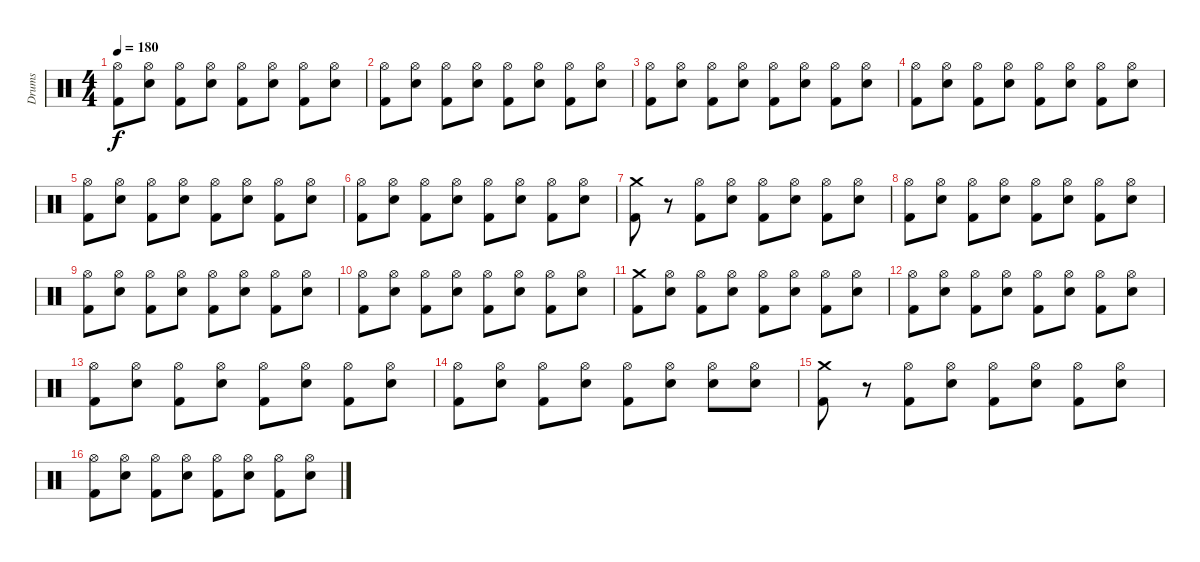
\track ("Drums" "Drums") {instrument percussion}
\staff {score}
\articulation defaults
\ts (4 4)
\tempo 180
\clef neutral
\ks c
("Hi-Hat (open)" "Kick (hit) 2").8{dy f} ("Electric Snare (hit)" "Hi-Hat (open)").8 ("Kick (hit) 2" "Hi-Hat (open)").8 ("Electric Snare (hit)" "Hi-Hat (open)").8 ("Kick (hit) 2" "Hi-Hat (open)").8 ("Electric Snare (hit)" "Hi-Hat (open)").8 ("Kick (hit) 2" "Hi-Hat (open)").8 ("Electric Snare (hit)" "Hi-Hat (open)").8 |
("Hi-Hat (open)" "Kick (hit) 2").8 ("Electric Snare (hit)" "Hi-Hat (open)").8 ("Kick (hit) 2" "Hi-Hat (open)").8 ("Electric Snare (hit)" "Hi-Hat (open)").8 ("Kick (hit) 2" "Hi-Hat (open)").8 ("Electric Snare (hit)" "Hi-Hat (open)").8 ("Kick (hit) 2" "Hi-Hat (open)").8 ("Electric Snare (hit)" "Hi-Hat (open)").8 |
("Hi-Hat (open)" "Kick (hit) 2").8 ("Electric Snare (hit)" "Hi-Hat (open)").8 ("Kick (hit) 2" "Hi-Hat (open)").8 ("Electric Snare (hit)" "Hi-Hat (open)").8 ("Kick (hit) 2" "Hi-Hat (open)").8 ("Electric Snare (hit)" "Hi-Hat (open)").8 ("Kick (hit) 2" "Hi-Hat (open)").8 ("Electric Snare (hit)" "Hi-Hat (open)").8 |
("Hi-Hat (open)" "Kick (hit) 2").8 ("Electric Snare (hit)" "Hi-Hat (open)").8 ("Kick (hit) 2" "Hi-Hat (open)").8 ("Electric Snare (hit)" "Hi-Hat (open)").8 ("Kick (hit) 2" "Hi-Hat (open)").8 ("Electric Snare (hit)" "Hi-Hat (open)").8 ("Kick (hit) 2" "Hi-Hat (open)").8 ("Electric Snare (hit)" "Hi-Hat (open)").8 |
("Hi-Hat (open)" "Kick (hit) 2").8 ("Electric Snare (hit)" "Hi-Hat (open)").8 ("Kick (hit) 2" "Hi-Hat (open)").8 ("Electric Snare (hit)" "Hi-Hat (open)").8 ("Kick (hit) 2" "Hi-Hat (open)").8 ("Electric Snare (hit)" "Hi-Hat (open)").8 ("Kick (hit) 2" "Hi-Hat (open)").8 ("Electric Snare (hit)" "Hi-Hat (open)").8 |
("Hi-Hat (open)" "Kick (hit) 2").8 ("Electric Snare (hit)" "Hi-Hat (open)").8 ("Kick (hit) 2" "Hi-Hat (open)").8 ("Electric Snare (hit)" "Hi-Hat (open)").8 ("Kick (hit) 2" "Hi-Hat (open)").8 ("Electric Snare (hit)" "Hi-Hat (open)").8 ("Kick (hit) 2" "Hi-Hat (open)").8 ("Electric Snare (hit)" "Hi-Hat (open)").8 |
("Crash medium (hit)" "Kick (hit) 2").8 r.8 ("Kick (hit) 2" "Hi-Hat (open)").8 ("Electric Snare (hit)" "Hi-Hat (open)").8 ("Kick (hit) 2" "Hi-Hat (open)").8 ("Electric Snare (hit)" "Hi-Hat (open)").8 ("Kick (hit) 2" "Hi-Hat (open)").8 ("Electric Snare (hit)" "Hi-Hat (open)").8 |
("Hi-Hat (open)" "Kick (hit) 2").8 ("Electric Snare (hit)" "Hi-Hat (open)").8 ("Kick (hit) 2" "Hi-Hat (open)").8 ("Electric Snare (hit)" "Hi-Hat (open)").8 ("Kick (hit) 2" "Hi-Hat (open)").8 ("Electric Snare (hit)" "Hi-Hat (open)").8 ("Kick (hit) 2" "Hi-Hat (open)").8 ("Electric Snare (hit)" "Hi-Hat (open)").8 |
("Hi-Hat (open)" "Kick (hit) 2").8 ("Electric Snare (hit)" "Hi-Hat (open)").8 ("Kick (hit) 2" "Hi-Hat (open)").8 ("Electric Snare (hit)" "Hi-Hat (open)").8 ("Kick (hit) 2" "Hi-Hat (open)").8 ("Electric Snare (hit)" "Hi-Hat (open)").8 ("Kick (hit) 2" "Hi-Hat (open)").8 ("Electric Snare (hit)" "Hi-Hat (open)").8 |
("Hi-Hat (open)" "Kick (hit) 2").8 ("Electric Snare (hit)" "Hi-Hat (open)").8 ("Kick (hit) 2" "Hi-Hat (open)").8 ("Electric Snare (hit)" "Hi-Hat (open)").8 ("Kick (hit) 2" "Hi-Hat (open)").8 ("Electric Snare (hit)" "Hi-Hat (open)").8 ("Kick (hit) 2" "Hi-Hat (open)").8 ("Electric Snare (hit)" "Hi-Hat (open)").8 |
("Crash medium (hit)" "Kick (hit) 2").8 ("Electric Snare (hit)" "Hi-Hat (open)").8 ("Kick (hit) 2" "Hi-Hat (open)").8 ("Electric Snare (hit)" "Hi-Hat (open)").8 ("Kick (hit) 2" "Hi-Hat (open)").8 ("Electric Snare (hit)" "Hi-Hat (open)").8 ("Kick (hit) 2" "Hi-Hat (open)").8 ("Electric Snare (hit)" "Hi-Hat (open)").8 |
("Hi-Hat (open)" "Kick (hit) 2").8 ("Electric Snare (hit)" "Hi-Hat (open)").8 ("Kick (hit) 2" "Hi-Hat (open)").8 ("Electric Snare (hit)" "Hi-Hat (open)").8 ("Kick (hit) 2" "Hi-Hat (open)").8 ("Electric Snare (hit)" "Hi-Hat (open)").8 ("Kick (hit) 2" "Hi-Hat (open)").8 ("Electric Snare (hit)" "Hi-Hat (open)").8 |
("Hi-Hat (open)" "Kick (hit) 2").8 ("Electric Snare (hit)" "Hi-Hat (open)").8 ("Kick (hit) 2" "Hi-Hat (open)").8 ("Electric Snare (hit)" "Hi-Hat (open)").8 ("Kick (hit) 2" "Hi-Hat (open)").8 ("Electric Snare (hit)" "Hi-Hat (open)").8 ("Kick (hit) 2" "Hi-Hat (open)").8 ("Electric Snare (hit)" "Hi-Hat (open)").8 |
("Hi-Hat (open)" "Kick (hit) 2").8 ("Electric Snare (hit)" "Hi-Hat (open)").8 ("Kick (hit) 2" "Hi-Hat (open)").8 ("Electric Snare (hit)" "Hi-Hat (open)").8 ("Kick (hit) 2" "Hi-Hat (open)").8 ("Electric Snare (hit)" "Hi-Hat (open)").8 ("Electric Snare (hit)" "Hi-Hat (open)").8 ("Electric Snare (hit)" "Hi-Hat (open)").8 |
("Crash medium (hit)" "Kick (hit) 2").8 r.8 ("Kick (hit) 2" "Hi-Hat (open)").8 ("Electric Snare (hit)" "Hi-Hat (open)").8 ("Kick (hit) 2" "Hi-Hat (open)").8 ("Electric Snare (hit)" "Hi-Hat (open)").8 ("Kick (hit) 2" "Hi-Hat (open)").8 ("Electric Snare (hit)" "Hi-Hat (open)").8 |
("Hi-Hat (open)" "Kick (hit) 2").8 ("Electric Snare (hit)" "Hi-Hat (open)").8 ("Kick (hit) 2" "Hi-Hat (open)").8 ("Electric Snare (hit)" "Hi-Hat (open)").8 ("Kick (hit) 2" "Hi-Hat (open)").8 ("Electric Snare (hit)" "Hi-Hat (open)").8 ("Kick (hit) 2" "Hi-Hat (open)").8 ("Electric Snare (hit)" "Hi-Hat (open)").8
